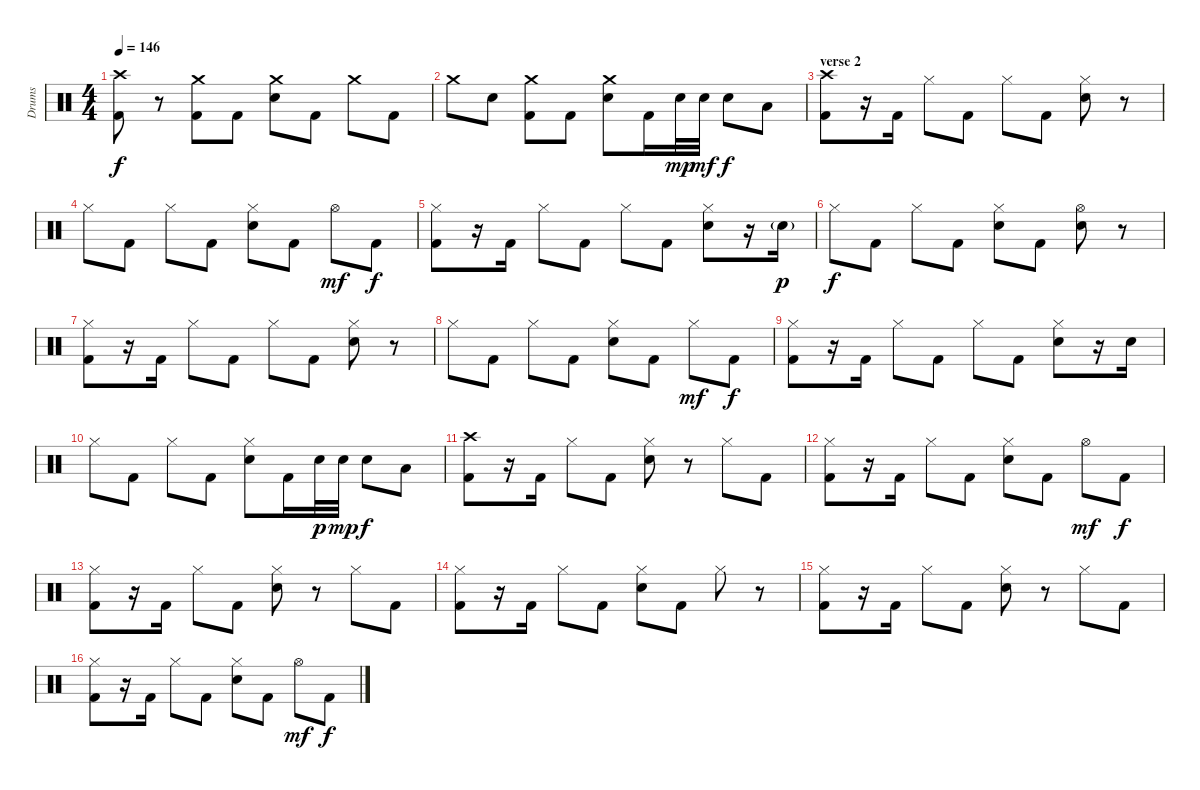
\track ("Drums" "Drums") {instrument percussion}
\staff {score}
\articulation defaults
\ts (4 4)
\tempo 146
\clef neutral
\ks c
("Crash high (hit)" "Kick (hit) 2").8{dy f} r.8 ("Crash medium (hit)" "Kick (hit) 2").8 "Kick (hit) 2".8 ("Crash medium (hit)" "Electric Snare (hit)").8 "Kick (hit) 2".8 "Crash medium (hit)".8 "Kick (hit) 2".8 |
"Crash medium (hit)".8 "Electric Snare (hit)".8 ("Crash medium (hit)" "Kick (hit) 2").8 "Kick (hit) 2".8 ("Crash medium (hit)" "Electric Snare (hit)").8 "Kick (hit) 2".16 "Electric Snare (hit)".32{dy mp} "Electric Snare (hit)".32{dy mf} "Electric Snare (hit)".8{dy f} "Low Tom (hit)".8 |
\section ("" "verse 2")
("Crash high (hit)" "Kick (hit) 2").8 r.16 "Kick (hit) 2".16 "Hi-Hat (closed)".8 "Kick (hit) 2".8 "Hi-Hat (closed)".8 "Kick (hit) 2".8 ("Hi-Hat (closed)" "Electric Snare (hit)").8 r.8 |
"Hi-Hat (closed)".8 "Kick (hit) 2".8 "Hi-Hat (closed)".8 "Kick (hit) 2".8 ("Hi-Hat (closed)" "Electric Snare (hit)").8 "Kick (hit) 2".8 "Hi-Hat (open)".8{dy mf} "Kick (hit) 2".8{dy f} |
("Hi-Hat (closed)" "Kick (hit) 2").8 r.16 "Kick (hit) 2".16 "Hi-Hat (closed)".8 "Kick (hit) 2".8 "Hi-Hat (closed)".8 "Kick (hit) 2".8 ("Hi-Hat (closed)" "Electric Snare (hit)").8 r.16 "Electric Snare (hit)"{g}.16{dy p} |
"Hi-Hat (closed)".8{dy f} "Kick (hit) 2".8 "Hi-Hat (closed)".8 "Kick (hit) 2".8 ("Hi-Hat (closed)" "Electric Snare (hit)").8 "Kick (hit) 2".8 ("Hi-Hat (open)" "Electric Snare (hit)").8 r.8 |
("Hi-Hat (closed)" "Kick (hit) 2").8 r.16 "Kick (hit) 2".16 "Hi-Hat (closed)".8 "Kick (hit) 2".8 "Hi-Hat (closed)".8 "Kick (hit) 2".8 ("Hi-Hat (closed)" "Electric Snare (hit)").8 r.8 |
"Hi-Hat (closed)".8 "Kick (hit) 2".8 "Hi-Hat (closed)".8 "Kick (hit) 2".8 ("Hi-Hat (closed)" "Electric Snare (hit)").8 "Kick (hit) 2".8 "Hi-Hat (closed)".8{dy mf} "Kick (hit) 2".8{dy f} |
("Hi-Hat (closed)" "Kick (hit) 2").8 r.16 "Kick (hit) 2".16 "Hi-Hat (closed)".8 "Kick (hit) 2".8 "Hi-Hat (closed)".8 "Kick (hit) 2".8 ("Hi-Hat (closed)" "Electric Snare (hit)").8 r.16 "Electric Snare (hit)".16 |
"Hi-Hat (closed)".8 "Kick (hit) 2".8 "Hi-Hat (closed)".8 "Kick (hit) 2".8 ("Hi-Hat (closed)" "Electric Snare (hit)").8 "Kick (hit) 2".16 "Electric Snare (hit)".32{dy p} "Electric Snare (hit)".32{dy mp} "Electric Snare (hit)".8{dy f} "Low Tom (hit)".8 |
("Crash high (hit)" "Kick (hit) 2").8 r.16 "Kick (hit) 2".16 "Hi-Hat (closed)".8 "Kick (hit) 2".8 ("Hi-Hat (closed)" "Electric Snare (hit)").8 r.8 "Hi-Hat (closed)".8 "Kick (hit) 2".8 |
("Hi-Hat (closed)" "Kick (hit) 2").8 r.16 "Kick (hit) 2".16 "Hi-Hat (closed)".8 "Kick (hit) 2".8 ("Hi-Hat (closed)" "Electric Snare (hit)").8 "Kick (hit) 2".8 "Hi-Hat (open)".8{dy mf} "Kick (hit) 2".8{dy f} |
("Hi-Hat (closed)" "Kick (hit) 2").8 r.16 "Kick (hit) 2".16 "Hi-Hat (closed)".8 "Kick (hit) 2".8 ("Hi-Hat (closed)" "Electric Snare (hit)").8 r.8 "Hi-Hat (closed)".8 "Kick (hit) 2".8 |
("Hi-Hat (closed)" "Kick (hit) 2").8 r.16 "Kick (hit) 2".16 "Hi-Hat (closed)".8 "Kick (hit) 2".8 ("Hi-Hat (closed)" "Electric Snare (hit)").8 "Kick (hit) 2".8 "Hi-Hat (closed)".8 r.8 |
("Hi-Hat (closed)" "Kick (hit) 2").8 r.16 "Kick (hit) 2".16 "Hi-Hat (closed)".8 "Kick (hit) 2".8 ("Hi-Hat (closed)" "Electric Snare (hit)").8 r.8 "Hi-Hat (closed)".8 "Kick (hit) 2".8 |
("Hi-Hat (closed)" "Kick (hit) 2").8 r.16 "Kick (hit) 2".16 "Hi-Hat (closed)".8 "Kick (hit) 2".8 ("Hi-Hat (closed)" "Electric Snare (hit)").8 "Kick (hit) 2".8 "Hi-Hat (open)".8{dy mf} "Kick (hit) 2".8{dy f}
